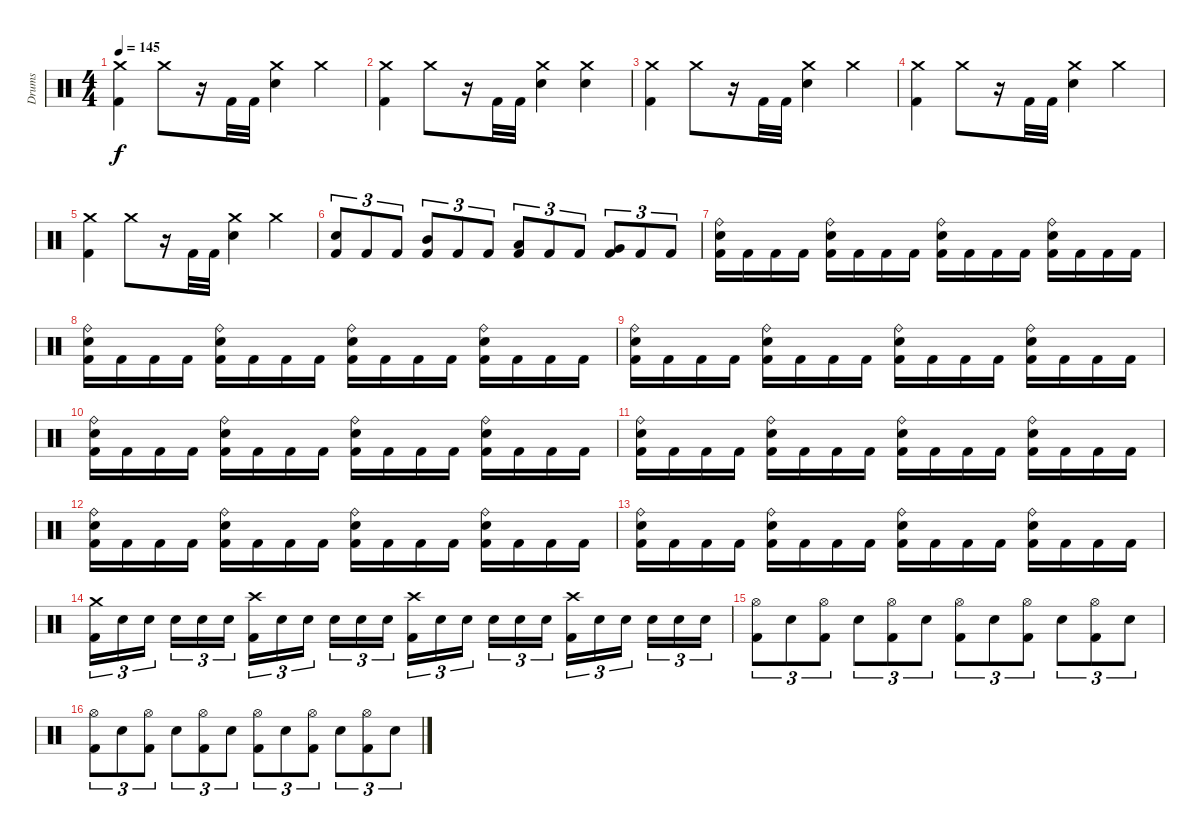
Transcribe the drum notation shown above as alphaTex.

\track ("Drums" "Drums") {instrument percussion}
\staff {score}
\articulation defaults
\ts (4 4)
\tempo 145
\clef neutral
\ks c
("Crash medium (hit)" "Kick (hit) 2").4{dy f} "Crash medium (hit)".8 r.16 "Kick (hit) 2".32 "Kick (hit) 2".32 ("Crash medium (hit)" "Electric Snare (hit)").4 "Crash medium (hit)".4 |
("Crash medium (hit)" "Kick (hit) 2").4 "Crash medium (hit)".8 r.16 "Kick (hit) 2".32 "Kick (hit) 2".32 ("Crash medium (hit)" "Electric Snare (hit)").4 ("Crash medium (hit)" "Electric Snare (hit)").4 |
("Crash medium (hit)" "Kick (hit) 2").4 "Crash medium (hit)".8 r.16 "Kick (hit) 2".32 "Kick (hit) 2".32 ("Crash medium (hit)" "Electric Snare (hit)").4 "Crash medium (hit)".4 |
("Crash medium (hit)" "Kick (hit) 2").4 "Crash medium (hit)".8 r.16 "Kick (hit) 2".32 "Kick (hit) 2".32 ("Crash medium (hit)" "Electric Snare (hit)").4 "Crash medium (hit)".4 |
("Crash medium (hit)" "Kick (hit) 2").4 "Crash medium (hit)".8 r.16 "Kick (hit) 2".32 "Kick (hit) 2".32 ("Crash medium (hit)" "Electric Snare (hit)").4 "Crash medium (hit)".4 |
("Electric Snare (hit)" "Kick (hit) 2").8{tu (3 2)} "Kick (hit) 2".8{tu (3 2)} "Kick (hit) 2".8{tu (3 2)} ("Mid Tom (hit)" "Kick (hit) 2").8{tu (3 2)} "Kick (hit) 2".8{tu (3 2)} "Kick (hit) 2".8{tu (3 2)} ("Low Tom (hit)" "Kick (hit) 2").8{tu (3 2)} "Kick (hit) 2".8{tu (3 2)} "Kick (hit) 2".8{tu (3 2)} ("Very Low Tom (hit)" "Kick (hit) 2").8{tu (3 2)} "Kick (hit) 2".8{tu (3 2)} "Kick (hit) 2".8{tu (3 2)} |
("Ride (bell)" "Electric Snare (hit)" "Kick (hit) 2").16 "Kick (hit) 2".16 "Kick (hit) 2".16 "Kick (hit) 2".16 ("Ride (bell)" "Electric Snare (hit)" "Kick (hit) 2").16 "Kick (hit) 2".16 "Kick (hit) 2".16 "Kick (hit) 2".16 ("Ride (bell)" "Electric Snare (hit)" "Kick (hit) 2").16 "Kick (hit) 2".16 "Kick (hit) 2".16 "Kick (hit) 2".16 ("Ride (bell)" "Electric Snare (hit)" "Kick (hit) 2").16 "Kick (hit) 2".16 "Kick (hit) 2".16 "Kick (hit) 2".16 |
("Ride (bell)" "Electric Snare (hit)" "Kick (hit) 2").16 "Kick (hit) 2".16 "Kick (hit) 2".16 "Kick (hit) 2".16 ("Ride (bell)" "Electric Snare (hit)" "Kick (hit) 2").16 "Kick (hit) 2".16 "Kick (hit) 2".16 "Kick (hit) 2".16 ("Ride (bell)" "Electric Snare (hit)" "Kick (hit) 2").16 "Kick (hit) 2".16 "Kick (hit) 2".16 "Kick (hit) 2".16 ("Ride (bell)" "Electric Snare (hit)" "Kick (hit) 2").16 "Kick (hit) 2".16 "Kick (hit) 2".16 "Kick (hit) 2".16 |
("Ride (bell)" "Electric Snare (hit)" "Kick (hit) 2").16 "Kick (hit) 2".16 "Kick (hit) 2".16 "Kick (hit) 2".16 ("Ride (bell)" "Electric Snare (hit)" "Kick (hit) 2").16 "Kick (hit) 2".16 "Kick (hit) 2".16 "Kick (hit) 2".16 ("Ride (bell)" "Electric Snare (hit)" "Kick (hit) 2").16 "Kick (hit) 2".16 "Kick (hit) 2".16 "Kick (hit) 2".16 ("Ride (bell)" "Electric Snare (hit)" "Kick (hit) 2").16 "Kick (hit) 2".16 "Kick (hit) 2".16 "Kick (hit) 2".16 |
("Ride (bell)" "Electric Snare (hit)" "Kick (hit) 2").16 "Kick (hit) 2".16 "Kick (hit) 2".16 "Kick (hit) 2".16 ("Ride (bell)" "Electric Snare (hit)" "Kick (hit) 2").16 "Kick (hit) 2".16 "Kick (hit) 2".16 "Kick (hit) 2".16 ("Ride (bell)" "Electric Snare (hit)" "Kick (hit) 2").16 "Kick (hit) 2".16 "Kick (hit) 2".16 "Kick (hit) 2".16 ("Ride (bell)" "Electric Snare (hit)" "Kick (hit) 2").16 "Kick (hit) 2".16 "Kick (hit) 2".16 "Kick (hit) 2".16 |
("Ride (bell)" "Electric Snare (hit)" "Kick (hit) 2").16 "Kick (hit) 2".16 "Kick (hit) 2".16 "Kick (hit) 2".16 ("Ride (bell)" "Electric Snare (hit)" "Kick (hit) 2").16 "Kick (hit) 2".16 "Kick (hit) 2".16 "Kick (hit) 2".16 ("Ride (bell)" "Electric Snare (hit)" "Kick (hit) 2").16 "Kick (hit) 2".16 "Kick (hit) 2".16 "Kick (hit) 2".16 ("Ride (bell)" "Electric Snare (hit)" "Kick (hit) 2").16 "Kick (hit) 2".16 "Kick (hit) 2".16 "Kick (hit) 2".16 |
("Ride (bell)" "Electric Snare (hit)" "Kick (hit) 2").16 "Kick (hit) 2".16 "Kick (hit) 2".16 "Kick (hit) 2".16 ("Ride (bell)" "Electric Snare (hit)" "Kick (hit) 2").16 "Kick (hit) 2".16 "Kick (hit) 2".16 "Kick (hit) 2".16 ("Ride (bell)" "Electric Snare (hit)" "Kick (hit) 2").16 "Kick (hit) 2".16 "Kick (hit) 2".16 "Kick (hit) 2".16 ("Ride (bell)" "Electric Snare (hit)" "Kick (hit) 2").16 "Kick (hit) 2".16 "Kick (hit) 2".16 "Kick (hit) 2".16 |
("Ride (bell)" "Electric Snare (hit)" "Kick (hit) 2").16 "Kick (hit) 2".16 "Kick (hit) 2".16 "Kick (hit) 2".16 ("Ride (bell)" "Electric Snare (hit)" "Kick (hit) 2").16 "Kick (hit) 2".16 "Kick (hit) 2".16 "Kick (hit) 2".16 ("Ride (bell)" "Electric Snare (hit)" "Kick (hit) 2").16 "Kick (hit) 2".16 "Kick (hit) 2".16 "Kick (hit) 2".16 ("Ride (bell)" "Electric Snare (hit)" "Kick (hit) 2").16 "Kick (hit) 2".16 "Kick (hit) 2".16 "Kick (hit) 2".16 |
("Crash medium (hit)" "Kick (hit) 2").16{tu (3 2)} "Electric Snare (hit)".16{tu (3 2)} "Electric Snare (hit)".16{tu (3 2) beam splitsecondary} "Electric Snare (hit)".16{tu (3 2)} "Electric Snare (hit)".16{tu (3 2)} "Electric Snare (hit)".16{tu (3 2)} ("Crash high (hit)" "Kick (hit) 2").16{tu (3 2)} "Electric Snare (hit)".16{tu (3 2)} "Electric Snare (hit)".16{tu (3 2) beam splitsecondary} "Electric Snare (hit)".16{tu (3 2)} "Electric Snare (hit)".16{tu (3 2)} "Electric Snare (hit)".16{tu (3 2)} ("Crash high (hit)" "Kick (hit) 2").16{tu (3 2)} "Electric Snare (hit)".16{tu (3 2)} "Electric Snare (hit)".16{tu (3 2) beam splitsecondary} "Electric Snare (hit)".16{tu (3 2)} "Electric Snare (hit)".16{tu (3 2)} "Electric Snare (hit)".16{tu (3 2)} ("Crash high (hit)" "Kick (hit) 2").16{tu (3 2)} "Electric Snare (hit)".16{tu (3 2)} "Electric Snare (hit)".16{tu (3 2) beam splitsecondary} "Electric Snare (hit)".16{tu (3 2)} "Electric Snare (hit)".16{tu (3 2)} "Electric Snare (hit)".16{tu (3 2)} |
("Hi-Hat (open)" "Kick (hit) 2").8{tu (3 2)} "Electric Snare (hit)".8{tu (3 2)} ("Hi-Hat (open)" "Kick (hit) 2").8{tu (3 2)} "Electric Snare (hit)".8{tu (3 2)} ("Hi-Hat (open)" "Kick (hit) 2").8{tu (3 2)} "Electric Snare (hit)".8{tu (3 2)} ("Hi-Hat (open)" "Kick (hit) 2").8{tu (3 2)} "Electric Snare (hit)".8{tu (3 2)} ("Hi-Hat (open)" "Kick (hit) 2").8{tu (3 2)} "Electric Snare (hit)".8{tu (3 2)} ("Hi-Hat (open)" "Kick (hit) 2").8{tu (3 2)} "Electric Snare (hit)".8{tu (3 2)} |
("Hi-Hat (open)" "Kick (hit) 2").8{tu (3 2)} "Electric Snare (hit)".8{tu (3 2)} ("Hi-Hat (open)" "Kick (hit) 2").8{tu (3 2)} "Electric Snare (hit)".8{tu (3 2)} ("Hi-Hat (open)" "Kick (hit) 2").8{tu (3 2)} "Electric Snare (hit)".8{tu (3 2)} ("Hi-Hat (open)" "Kick (hit) 2").8{tu (3 2)} "Electric Snare (hit)".8{tu (3 2)} ("Hi-Hat (open)" "Kick (hit) 2").8{tu (3 2)} "Electric Snare (hit)".8{tu (3 2)} ("Hi-Hat (open)" "Kick (hit) 2").8{tu (3 2)} "Electric Snare (hit)".8{tu (3 2)}
